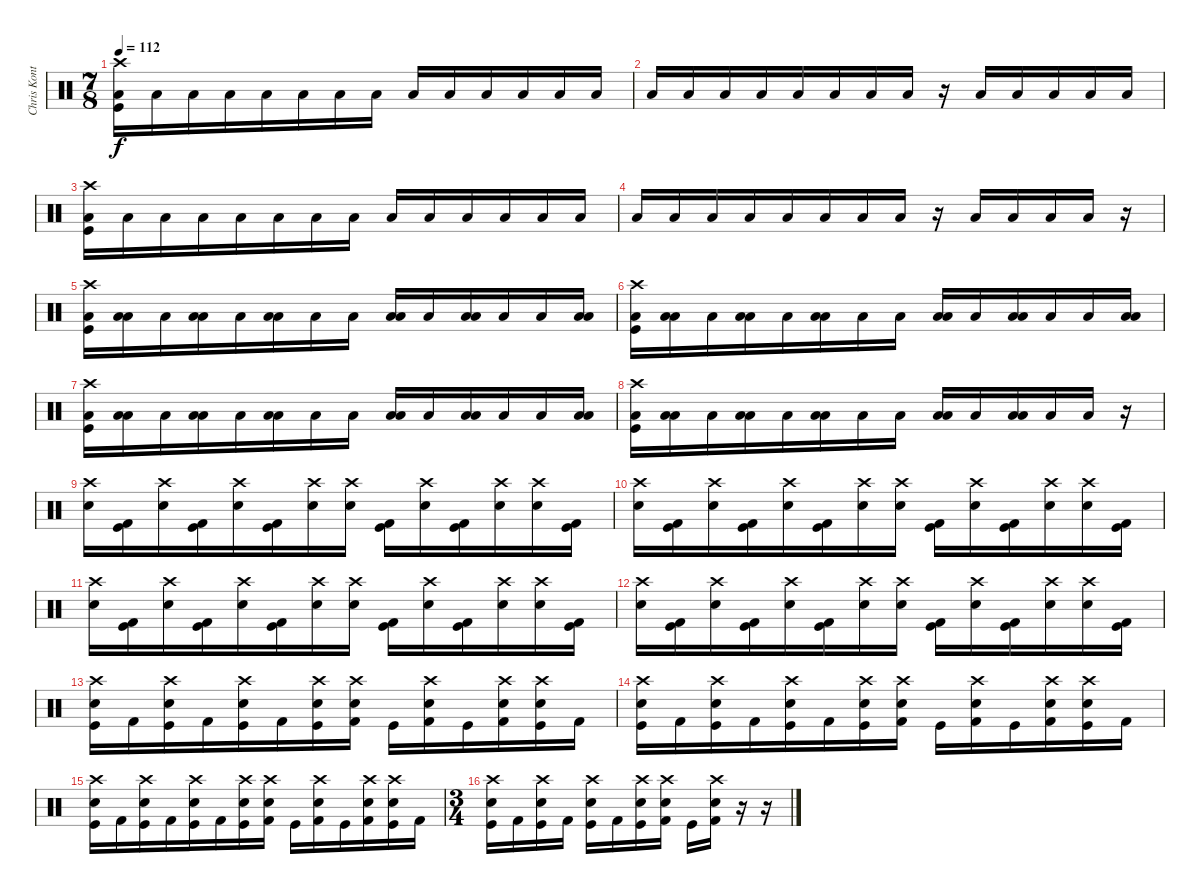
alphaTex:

\track ("Chris Kontos - Drums" "Chris Kont") {instrument percussion}
\staff {score}
\articulation defaults
\ts (7 8)
\tempo 112
\clef neutral
\ks c
("Crash high (hit)" "Low Tom (hit)" "Kick (hit)").16{dy f} "Low Tom (hit)".16 "Low Tom (hit)".16 "Low Tom (hit)".16 "Low Tom (hit)".16 "Low Tom (hit)".16 "Low Tom (hit)".16 "Low Tom (hit)".16 "Low Tom (hit)".16 "Low Tom (hit)".16 "Low Tom (hit)".16 "Low Tom (hit)".16 "Low Tom (hit)".16 "Low Tom (hit)".16 |
"Low Tom (hit)".16 "Low Tom (hit)".16 "Low Tom (hit)".16 "Low Tom (hit)".16 "Low Tom (hit)".16 "Low Tom (hit)".16 "Low Tom (hit)".16 "Low Tom (hit)".16 r.16 "Low Tom (hit)".16 "Low Tom (hit)".16 "Low Tom (hit)".16 "Low Tom (hit)".16 "Low Tom (hit)".16 |
("Crash high (hit)" "Low Tom (hit)" "Kick (hit)").16 "Low Tom (hit)".16 "Low Tom (hit)".16 "Low Tom (hit)".16 "Low Tom (hit)".16 "Low Tom (hit)".16 "Low Tom (hit)".16 "Low Tom (hit)".16 "Low Tom (hit)".16 "Low Tom (hit)".16 "Low Tom (hit)".16 "Low Tom (hit)".16 "Low Tom (hit)".16 "Low Tom (hit)".16 |
"Low Tom (hit)".16 "Low Tom (hit)".16 "Low Tom (hit)".16 "Low Tom (hit)".16 "Low Tom (hit)".16 "Low Tom (hit)".16 "Low Tom (hit)".16 "Low Tom (hit)".16 r.16 "Low Tom (hit)".16 "Low Tom (hit)".16 "Low Tom (hit)".16 "Low Tom (hit)".16 r.16 |
("Crash high (hit)" "Low Tom (hit)" "Kick (hit)").16 ("Low Tom (hit)" "Low Tom (hit)").16 "Low Tom (hit)".16 ("Low Tom (hit)" "Low Tom (hit)").16 "Low Tom (hit)".16 ("Low Tom (hit)" "Low Tom (hit)").16 "Low Tom (hit)".16 "Low Tom (hit)".16 ("Low Tom (hit)" "Low Tom (hit)").16 "Low Tom (hit)".16 ("Low Tom (hit)" "Low Tom (hit)").16 "Low Tom (hit)".16 "Low Tom (hit)".16 ("Low Tom (hit)" "Low Tom (hit)").16 |
("Crash high (hit)" "Low Tom (hit)" "Kick (hit)").16 ("Low Tom (hit)" "Low Tom (hit)").16 "Low Tom (hit)".16 ("Low Tom (hit)" "Low Tom (hit)").16 "Low Tom (hit)".16 ("Low Tom (hit)" "Low Tom (hit)").16 "Low Tom (hit)".16 "Low Tom (hit)".16 ("Low Tom (hit)" "Low Tom (hit)").16 "Low Tom (hit)".16 ("Low Tom (hit)" "Low Tom (hit)").16 "Low Tom (hit)".16 "Low Tom (hit)".16 ("Low Tom (hit)" "Low Tom (hit)").16 |
("Crash high (hit)" "Low Tom (hit)" "Kick (hit)").16 ("Low Tom (hit)" "Low Tom (hit)").16 "Low Tom (hit)".16 ("Low Tom (hit)" "Low Tom (hit)").16 "Low Tom (hit)".16 ("Low Tom (hit)" "Low Tom (hit)").16 "Low Tom (hit)".16 "Low Tom (hit)".16 ("Low Tom (hit)" "Low Tom (hit)").16 "Low Tom (hit)".16 ("Low Tom (hit)" "Low Tom (hit)").16 "Low Tom (hit)".16 "Low Tom (hit)".16 ("Low Tom (hit)" "Low Tom (hit)").16 |
("Crash high (hit)" "Low Tom (hit)" "Kick (hit)").16 ("Low Tom (hit)" "Low Tom (hit)").16 "Low Tom (hit)".16 ("Low Tom (hit)" "Low Tom (hit)").16 "Low Tom (hit)".16 ("Low Tom (hit)" "Low Tom (hit)").16 "Low Tom (hit)".16 "Low Tom (hit)".16 ("Low Tom (hit)" "Low Tom (hit)").16 "Low Tom (hit)".16 ("Low Tom (hit)" "Low Tom (hit)").16 "Low Tom (hit)".16 "Low Tom (hit)".16 r.16 |
("Crash high (hit)" "Snare (hit) 2").16 ("Kick (hit) 2" "Kick (hit)").16 ("Crash high (hit)" "Snare (hit) 2").16 ("Kick (hit)" "Kick (hit) 2").16 ("Crash high (hit)" "Snare (hit) 2").16 ("Kick (hit)" "Kick (hit) 2").16 ("Crash high (hit)" "Snare (hit) 2").16 ("Crash high (hit)" "Snare (hit) 2").16 ("Kick (hit)" "Kick (hit) 2").16 ("Crash high (hit)" "Snare (hit) 2").16 ("Kick (hit)" "Kick (hit) 2").16 ("Crash high (hit)" "Snare (hit) 2").16 ("Crash high (hit)" "Snare (hit) 2").16 ("Kick (hit) 2" "Kick (hit)").16 |
("Crash high (hit)" "Snare (hit) 2").16 ("Kick (hit) 2" "Kick (hit)").16 ("Crash high (hit)" "Snare (hit) 2").16 ("Kick (hit)" "Kick (hit) 2").16 ("Crash high (hit)" "Snare (hit) 2").16 ("Kick (hit)" "Kick (hit) 2").16 ("Crash high (hit)" "Snare (hit) 2").16 ("Crash high (hit)" "Snare (hit) 2").16 ("Kick (hit)" "Kick (hit) 2").16 ("Crash high (hit)" "Snare (hit) 2").16 ("Kick (hit)" "Kick (hit) 2").16 ("Crash high (hit)" "Snare (hit) 2").16 ("Crash high (hit)" "Snare (hit) 2").16 ("Kick (hit) 2" "Kick (hit)").16 |
("Crash high (hit)" "Snare (hit) 2").16 ("Kick (hit) 2" "Kick (hit)").16 ("Crash high (hit)" "Snare (hit) 2").16 ("Kick (hit)" "Kick (hit) 2").16 ("Crash high (hit)" "Snare (hit) 2").16 ("Kick (hit)" "Kick (hit) 2").16 ("Crash high (hit)" "Snare (hit) 2").16 ("Crash high (hit)" "Snare (hit) 2").16 ("Kick (hit)" "Kick (hit) 2").16 ("Crash high (hit)" "Snare (hit) 2").16 ("Kick (hit)" "Kick (hit) 2").16 ("Crash high (hit)" "Snare (hit) 2").16 ("Crash high (hit)" "Snare (hit) 2").16 ("Kick (hit) 2" "Kick (hit)").16 |
("Crash high (hit)" "Snare (hit) 2").16 ("Kick (hit) 2" "Kick (hit)").16 ("Crash high (hit)" "Snare (hit) 2").16 ("Kick (hit)" "Kick (hit) 2").16 ("Crash high (hit)" "Snare (hit) 2").16 ("Kick (hit)" "Kick (hit) 2").16 ("Crash high (hit)" "Snare (hit) 2").16 ("Crash high (hit)" "Snare (hit) 2").16 ("Kick (hit)" "Kick (hit) 2").16 ("Crash high (hit)" "Snare (hit) 2").16 ("Kick (hit)" "Kick (hit) 2").16 ("Crash high (hit)" "Snare (hit) 2").16 ("Crash high (hit)" "Snare (hit) 2").16 ("Kick (hit) 2" "Kick (hit)").16 |
("Crash high (hit)" "Snare (hit) 2" "Kick (hit)").16 "Kick (hit) 2".16 ("Crash high (hit)" "Snare (hit) 2" "Kick (hit)").16 "Kick (hit) 2".16 ("Crash high (hit)" "Snare (hit) 2" "Kick (hit)").16 "Kick (hit) 2".16 ("Crash high (hit)" "Snare (hit) 2" "Kick (hit)").16 ("Crash high (hit)" "Snare (hit) 2" "Kick (hit) 2").16 "Kick (hit)".16 ("Crash high (hit)" "Snare (hit) 2" "Kick (hit) 2").16 "Kick (hit)".16 ("Crash high (hit)" "Snare (hit) 2" "Kick (hit) 2").16 ("Crash high (hit)" "Snare (hit) 2" "Kick (hit)").16 "Kick (hit) 2".16 |
("Crash high (hit)" "Snare (hit) 2" "Kick (hit)").16 "Kick (hit) 2".16 ("Crash high (hit)" "Snare (hit) 2" "Kick (hit)").16 "Kick (hit) 2".16 ("Crash high (hit)" "Snare (hit) 2" "Kick (hit)").16 "Kick (hit) 2".16 ("Crash high (hit)" "Snare (hit) 2" "Kick (hit)").16 ("Crash high (hit)" "Snare (hit) 2" "Kick (hit) 2").16 "Kick (hit)".16 ("Crash high (hit)" "Snare (hit) 2" "Kick (hit) 2").16 "Kick (hit)".16 ("Crash high (hit)" "Snare (hit) 2" "Kick (hit) 2").16 ("Crash high (hit)" "Snare (hit) 2" "Kick (hit)").16 "Kick (hit) 2".16 |
("Crash high (hit)" "Snare (hit) 2" "Kick (hit)").16 "Kick (hit) 2".16 ("Crash high (hit)" "Snare (hit) 2" "Kick (hit)").16 "Kick (hit) 2".16 ("Crash high (hit)" "Snare (hit) 2" "Kick (hit)").16 "Kick (hit) 2".16 ("Crash high (hit)" "Snare (hit) 2" "Kick (hit)").16 ("Crash high (hit)" "Snare (hit) 2" "Kick (hit) 2").16 "Kick (hit)".16 ("Crash high (hit)" "Snare (hit) 2" "Kick (hit) 2").16 "Kick (hit)".16 ("Crash high (hit)" "Snare (hit) 2" "Kick (hit) 2").16 ("Crash high (hit)" "Snare (hit) 2" "Kick (hit)").16 "Kick (hit) 2".16 |
\ts (3 4)
("Crash high (hit)" "Snare (hit) 2" "Kick (hit)").16 "Kick (hit) 2".16 ("Crash high (hit)" "Snare (hit) 2" "Kick (hit)").16 "Kick (hit) 2".16 ("Crash high (hit)" "Snare (hit) 2" "Kick (hit)").16 "Kick (hit) 2".16 ("Crash high (hit)" "Snare (hit) 2" "Kick (hit)").16 ("Crash high (hit)" "Snare (hit) 2" "Kick (hit) 2").16 "Kick (hit)".16 ("Crash high (hit)" "Snare (hit) 2" "Kick (hit) 2").16 r.16 r.16
